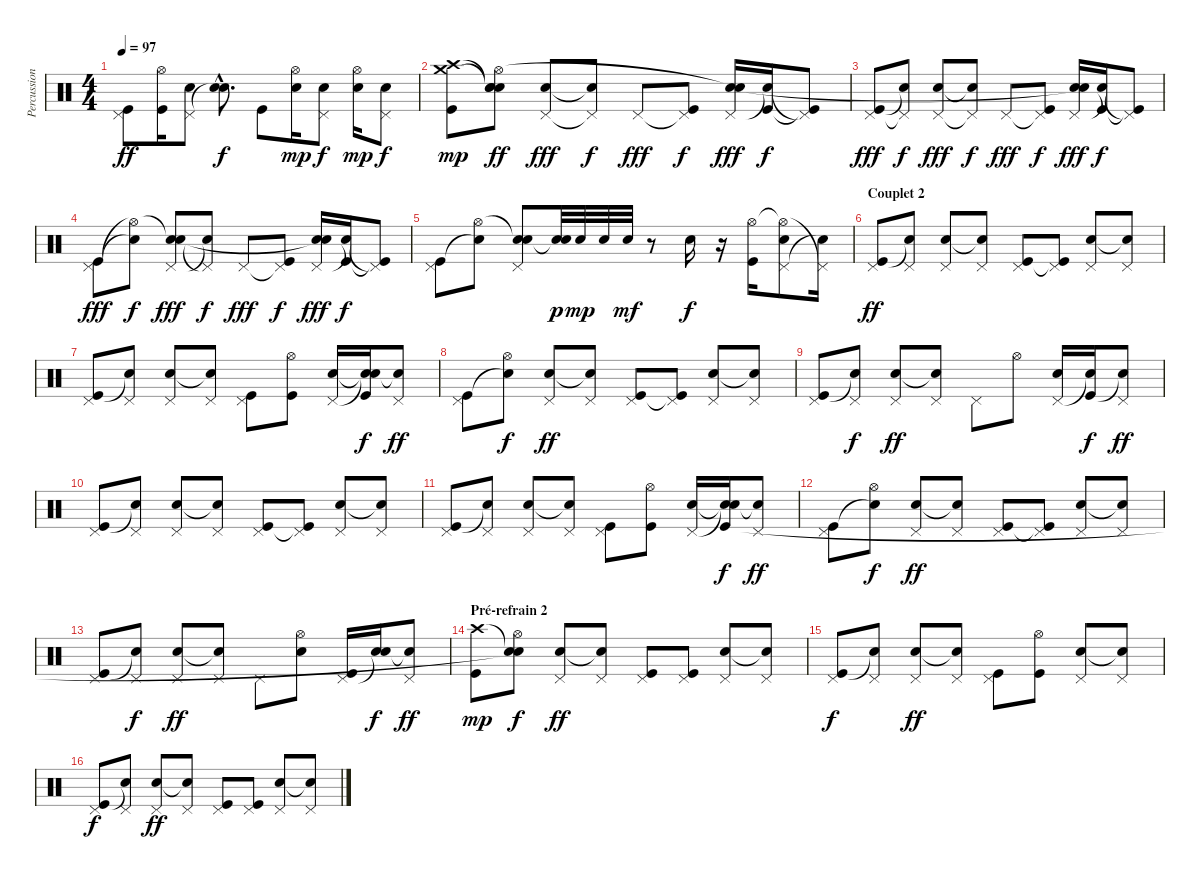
\track ("Percussions" "Percussion") {instrument percussion}
\staff {score}
\articulation defaults
\ts (4 4)
\tempo 97
\clef neutral
\ks c
("Pedal Hi-Hat (hit)" "Kick (hit)").8{dy ff} ("Hi-Hat (open)" "Kick (hit)").16 ("Pedal Hi-Hat (hit)" "Snare (hit) 2").8 ("Snare (hit)"{hac t} "Snare (hit) 2"{hac}).8{d dy f} "Kick (hit)".8 ("Hi-Hat (open)" "Snare (hit) 2").16{dy mp} ("Pedal Hi-Hat (hit)" "Snare (hit) 2").8{dy f} ("Hi-Hat (open)" "Snare (hit) 2").16{dy mp} ("Pedal Hi-Hat (hit)" "Snare (hit) 2").8{dy f} |
("Crash medium (hit)" "Crash high (hit)" "Kick (hit)").8{dy mp} ("Snare (hit)"{t} "Snare (hit)"{t} "Hi-Hat (open)" "Snare (hit)").8{dy ff} ("Pedal Hi-Hat (hit)" "Snare (hit) 2").8{dy fff} ("Pedal Hi-Hat (hit)"{t} "Snare (hit)"{t}).8{dy f} "Pedal Hi-Hat (hit)".8{dy fff} ("Pedal Hi-Hat (hit)"{t} "Kick (hit)").8{dy f} ("Pedal Hi-Hat (hit)" "Snare (hit) 2" "Snare (hit)"{t}).16{dy fff} ("Snare (hit)"{t} "Kick (hit)").16{dy f} ("Pedal Hi-Hat (hit)"{t} "Kick (hit)"{t}).8 |
("Pedal Hi-Hat (hit)" "Kick (hit)").8{dy fff} ("Pedal Hi-Hat (hit)"{t} "Snare (hit)"{t}).8{dy f} ("Pedal Hi-Hat (hit)" "Snare (hit) 2").8{dy fff} ("Pedal Hi-Hat (hit)"{t} "Snare (hit)"{t}).8{dy f} "Pedal Hi-Hat (hit)".8{dy fff} ("Pedal Hi-Hat (hit)"{t} "Kick (hit)").8{dy f} ("Pedal Hi-Hat (hit)" "Snare (hit) 2" "Snare (hit)"{t}).16{dy fff} ("Snare (hit)"{t} "Kick (hit)").16{dy f} ("Pedal Hi-Hat (hit)"{t} "Kick (hit)"{t}).8 |
("Pedal Hi-Hat (hit)" "Kick (hit)").8{dy fff} ("Hi-Hat (open)"{t} "Snare (hit)"{t}).8{dy f} ("Snare (hit)"{t} "Pedal Hi-Hat (hit)" "Snare (hit) 2").8{dy fff} ("Pedal Hi-Hat (hit)"{t} "Snare (hit)"{t}).8{dy f} "Pedal Hi-Hat (hit)".8{dy fff} ("Pedal Hi-Hat (hit)"{t} "Kick (hit)").8{dy f} ("Pedal Hi-Hat (hit)" "Snare (hit) 2" "Snare (hit)"{t}).16{dy fff} ("Snare (hit)"{t} "Kick (hit)").16{dy f} ("Pedal Hi-Hat (hit)"{t} "Kick (hit)"{t}).8 |
("Pedal Hi-Hat (hit)" "Kick (hit)").8 ("Hi-Hat (open)" "Snare (hit)"{t}).8 ("Snare (hit)"{t} "Pedal Hi-Hat (hit)" "Snare (hit) 2").8 ("Snare (hit)"{t} "Snare (hit) 2").32{dy p} "Snare (hit) 2".32{dy mp} "Snare (hit) 2".32 "Snare (hit) 2".32{dy mf} r.8 "Snare (hit) 2".16{dy f} r.16 ("Hi-Hat (open)" "Kick (hit)").16 ("Hi-Hat (open)"{t} "Pedal Hi-Hat (hit)" "Snare (hit) 2").8 ("Pedal Hi-Hat (hit)"{t} "Snare (hit)"{t}).16 |
\section ("" "Couplet 2")
("Pedal Hi-Hat (hit)" "Kick (hit)").8{dy ff} ("Pedal Hi-Hat (hit)" "Snare (hit)"{t}).8 ("Pedal Hi-Hat (hit)" "Snare (hit) 2").8 ("Pedal Hi-Hat (hit)" "Snare (hit)"{t}).8 ("Pedal Hi-Hat (hit)" "Kick (hit)").8 ("Pedal Hi-Hat (hit)" "Kick (hit)"{t}).8 ("Pedal Hi-Hat (hit)" "Snare (hit) 2").8 ("Pedal Hi-Hat (hit)" "Snare (hit)"{t}).8 |
("Pedal Hi-Hat (hit)" "Kick (hit)").8 ("Pedal Hi-Hat (hit)" "Snare (hit)"{t}).8 ("Pedal Hi-Hat (hit)" "Snare (hit) 2").8 ("Pedal Hi-Hat (hit)" "Snare (hit)"{t}).8 ("Pedal Hi-Hat (hit)" "Kick (hit)").8 ("Hi-Hat (open)" "Kick (hit)").8 ("Pedal Hi-Hat (hit)" "Snare (hit) 2").16 ("Snare (hit)"{t} "Snare (hit)"{t} "Kick (hit)").16{dy f} ("Pedal Hi-Hat (hit)" "Snare (hit)"{t}).8{dy ff} |
("Pedal Hi-Hat (hit)" "Kick (hit)").8 ("Hi-Hat (open)" "Snare (hit)"{t}).8{dy f} ("Pedal Hi-Hat (hit)" "Snare (hit) 2").8{dy ff} ("Pedal Hi-Hat (hit)" "Snare (hit)"{t}).8 ("Pedal Hi-Hat (hit)" "Kick (hit)").8 ("Pedal Hi-Hat (hit)" "Kick (hit)"{t}).8 ("Pedal Hi-Hat (hit)" "Snare (hit) 2").8 ("Pedal Hi-Hat (hit)" "Snare (hit)"{t}).8 |
("Pedal Hi-Hat (hit)" "Kick (hit)").8 ("Pedal Hi-Hat (hit)" "Snare (hit)"{t}).8{dy f} ("Pedal Hi-Hat (hit)" "Snare (hit) 2").8{dy ff} ("Pedal Hi-Hat (hit)" "Snare (hit)"{t}).8 "Pedal Hi-Hat (hit)".8 "Hi-Hat (open)".8 ("Pedal Hi-Hat (hit)" "Snare (hit) 2").16 ("Snare (hit)"{t} "Kick (hit)").16{dy f} ("Pedal Hi-Hat (hit)" "Snare (hit)"{t}).8{dy ff} |
("Pedal Hi-Hat (hit)" "Kick (hit)").8 ("Pedal Hi-Hat (hit)" "Snare (hit)"{t}).8 ("Pedal Hi-Hat (hit)" "Snare (hit) 2").8 ("Pedal Hi-Hat (hit)" "Snare (hit)"{t}).8 ("Pedal Hi-Hat (hit)" "Kick (hit)").8 ("Pedal Hi-Hat (hit)" "Kick (hit)"{t}).8 ("Pedal Hi-Hat (hit)" "Snare (hit) 2").8 ("Pedal Hi-Hat (hit)" "Snare (hit)"{t}).8 |
("Pedal Hi-Hat (hit)" "Kick (hit)").8 ("Pedal Hi-Hat (hit)" "Snare (hit)"{t}).8 ("Pedal Hi-Hat (hit)" "Snare (hit) 2").8 ("Pedal Hi-Hat (hit)" "Snare (hit)"{t}).8 ("Pedal Hi-Hat (hit)" "Kick (hit)").8 ("Hi-Hat (open)" "Kick (hit)").8 ("Pedal Hi-Hat (hit)" "Snare (hit) 2").16 ("Snare (hit)"{t} "Snare (hit)"{t} "Kick (hit)").16{dy f} ("Pedal Hi-Hat (hit)" "Snare (hit)"{t}).8{dy ff} |
("Pedal Hi-Hat (hit)" "Kick (hit)").8 ("Hi-Hat (open)" "Snare (hit)"{t}).8{dy f} ("Pedal Hi-Hat (hit)" "Snare (hit) 2").8{dy ff} ("Pedal Hi-Hat (hit)" "Snare (hit)"{t}).8 ("Pedal Hi-Hat (hit)" "Kick (hit)").8 ("Pedal Hi-Hat (hit)" "Kick (hit)"{t}).8 ("Pedal Hi-Hat (hit)" "Snare (hit) 2").8 ("Pedal Hi-Hat (hit)" "Snare (hit)"{t}).8 |
("Pedal Hi-Hat (hit)" "Kick (hit)").8 ("Pedal Hi-Hat (hit)" "Snare (hit)"{t}).8{dy f} ("Pedal Hi-Hat (hit)" "Snare (hit) 2").8{dy ff} ("Pedal Hi-Hat (hit)" "Snare (hit)"{t}).8 "Pedal Hi-Hat (hit)".8 ("Hi-Hat (open)" "Snare (hit) 2").8 ("Pedal Hi-Hat (hit)" "Kick (hit)").16 ("Snare (hit)"{t} "Snare (hit) 2").16{dy f} ("Pedal Hi-Hat (hit)" "Snare (hit)"{t}).8{dy ff} |
\section ("" "Pré-refrain 2")
("Crash high (hit)" "Kick (hit)").8{dy mp} ("Snare (hit)"{t} "Hi-Hat (open)" "Snare (hit)"{t}).8{dy f} ("Pedal Hi-Hat (hit)" "Snare (hit) 2").8{dy ff} ("Pedal Hi-Hat (hit)" "Snare (hit)"{t}).8 ("Pedal Hi-Hat (hit)" "Kick (hit)").8 ("Pedal Hi-Hat (hit)" "Kick (hit)").8 ("Pedal Hi-Hat (hit)" "Snare (hit) 2").8 ("Pedal Hi-Hat (hit)" "Snare (hit)"{t}).8 |
("Pedal Hi-Hat (hit)" "Kick (hit)").8{dy f} ("Pedal Hi-Hat (hit)" "Snare (hit)"{t}).8 ("Pedal Hi-Hat (hit)" "Snare (hit) 2").8{dy ff} ("Pedal Hi-Hat (hit)" "Snare (hit)"{t}).8 ("Pedal Hi-Hat (hit)" "Kick (hit)").8 ("Hi-Hat (open)" "Kick (hit)").8 ("Pedal Hi-Hat (hit)" "Snare (hit) 2").8 ("Pedal Hi-Hat (hit)" "Snare (hit)"{t}).8 |
("Pedal Hi-Hat (hit)" "Kick (hit)").8{dy f} ("Pedal Hi-Hat (hit)" "Snare (hit)"{t}).8 ("Pedal Hi-Hat (hit)" "Snare (hit) 2").8{dy ff} ("Pedal Hi-Hat (hit)" "Snare (hit)"{t}).8 ("Pedal Hi-Hat (hit)" "Kick (hit)").8 ("Pedal Hi-Hat (hit)" "Kick (hit)").8 ("Pedal Hi-Hat (hit)" "Snare (hit) 2").8 ("Pedal Hi-Hat (hit)" "Snare (hit)"{t}).8
